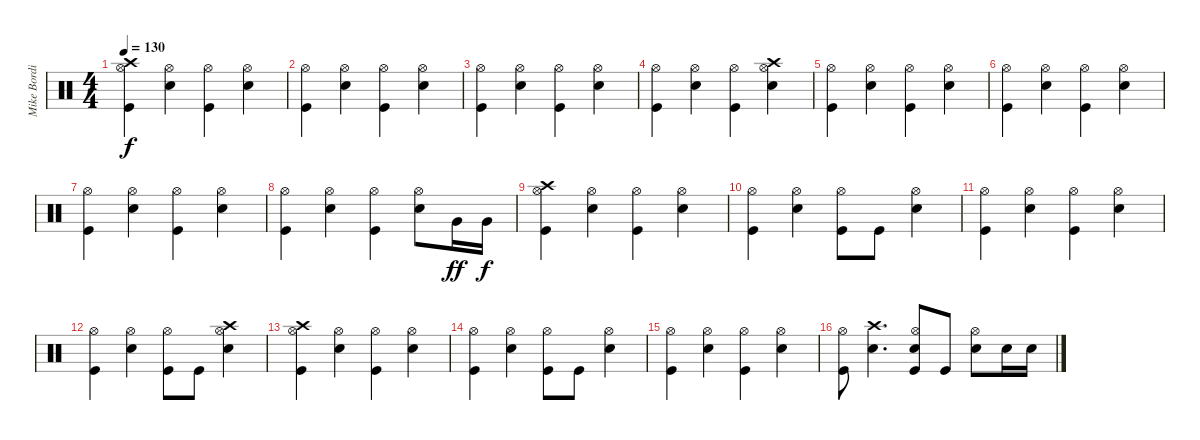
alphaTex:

\track ("Mike Bordin" "Mike Bordi") {instrument percussion}
\staff {score}
\articulation defaults
\ts (4 4)
\tempo 130
\clef neutral
\ks c
("Kick (hit)" "Hi-Hat (open)" "Crash high (hit)").4{dy f} ("Snare (hit) 2" "Hi-Hat (open)").4 ("Kick (hit)" "Hi-Hat (open)").4 ("Snare (hit) 2" "Hi-Hat (open)").4 |
("Kick (hit)" "Hi-Hat (open)").4 ("Snare (hit) 2" "Hi-Hat (open)").4 ("Kick (hit)" "Hi-Hat (open)").4 ("Snare (hit) 2" "Hi-Hat (open)").4 |
("Kick (hit)" "Hi-Hat (open)").4 ("Snare (hit) 2" "Hi-Hat (open)").4 ("Kick (hit)" "Hi-Hat (open)").4 ("Snare (hit) 2" "Hi-Hat (open)").4 |
("Kick (hit)" "Hi-Hat (open)").4 ("Snare (hit) 2" "Hi-Hat (open)").4 ("Kick (hit)" "Hi-Hat (open)").4 ("Snare (hit) 2" "Hi-Hat (open)" "Crash high (hit)").4 |
("Kick (hit)" "Hi-Hat (open)").4 ("Snare (hit) 2" "Hi-Hat (open)").4 ("Kick (hit)" "Hi-Hat (open)").4 ("Snare (hit) 2" "Hi-Hat (open)").4 |
("Kick (hit)" "Hi-Hat (open)").4 ("Snare (hit) 2" "Hi-Hat (open)").4 ("Kick (hit)" "Hi-Hat (open)").4 ("Snare (hit) 2" "Hi-Hat (open)").4 |
("Kick (hit)" "Hi-Hat (open)").4 ("Snare (hit) 2" "Hi-Hat (open)").4 ("Kick (hit)" "Hi-Hat (open)").4 ("Snare (hit) 2" "Hi-Hat (open)").4 |
("Kick (hit)" "Hi-Hat (open)").4 ("Snare (hit) 2" "Hi-Hat (open)").4 ("Kick (hit)" "Hi-Hat (open)").4 ("Snare (hit) 2" "Hi-Hat (open)").8 "Very Low Tom (hit)".16{dy ff} "Very Low Tom (hit)".16{dy f} |
("Kick (hit)" "Hi-Hat (open)" "Crash high (hit)").4 ("Snare (hit) 2" "Hi-Hat (open)").4 ("Kick (hit)" "Hi-Hat (open)").4 ("Snare (hit) 2" "Hi-Hat (open)").4 |
("Kick (hit)" "Hi-Hat (open)").4 ("Snare (hit) 2" "Hi-Hat (open)").4 ("Kick (hit)" "Hi-Hat (open)").8 "Kick (hit)".8 ("Snare (hit) 2" "Hi-Hat (open)").4 |
("Kick (hit)" "Hi-Hat (open)").4 ("Snare (hit) 2" "Hi-Hat (open)").4 ("Kick (hit)" "Hi-Hat (open)").4 ("Snare (hit) 2" "Hi-Hat (open)").4 |
("Kick (hit)" "Hi-Hat (open)").4 ("Snare (hit) 2" "Hi-Hat (open)").4 ("Kick (hit)" "Hi-Hat (open)").8 "Kick (hit)".8 ("Snare (hit) 2" "Hi-Hat (open)" "Crash high (hit)").4 |
("Kick (hit)" "Hi-Hat (open)" "Crash high (hit)").4 ("Snare (hit) 2" "Hi-Hat (open)").4 ("Kick (hit)" "Hi-Hat (open)").4 ("Snare (hit) 2" "Hi-Hat (open)").4 |
("Kick (hit)" "Hi-Hat (open)").4 ("Snare (hit) 2" "Hi-Hat (open)").4 ("Kick (hit)" "Hi-Hat (open)").8 "Kick (hit)".8 ("Snare (hit) 2" "Hi-Hat (open)").4 |
("Kick (hit)" "Hi-Hat (open)").4 ("Snare (hit) 2" "Hi-Hat (open)").4 ("Kick (hit)" "Hi-Hat (open)").4 ("Snare (hit) 2" "Hi-Hat (open)").4 |
("Kick (hit)" "Hi-Hat (open)").8 ("Snare (hit) 2" "Crash high (hit)").4{d} ("Kick (hit)" "Snare (hit) 2" "Hi-Hat (open)").8 "Kick (hit)".8 ("Snare (hit) 2" "Hi-Hat (open)").8 "Snare (hit) 2".16 "Snare (hit) 2".16
